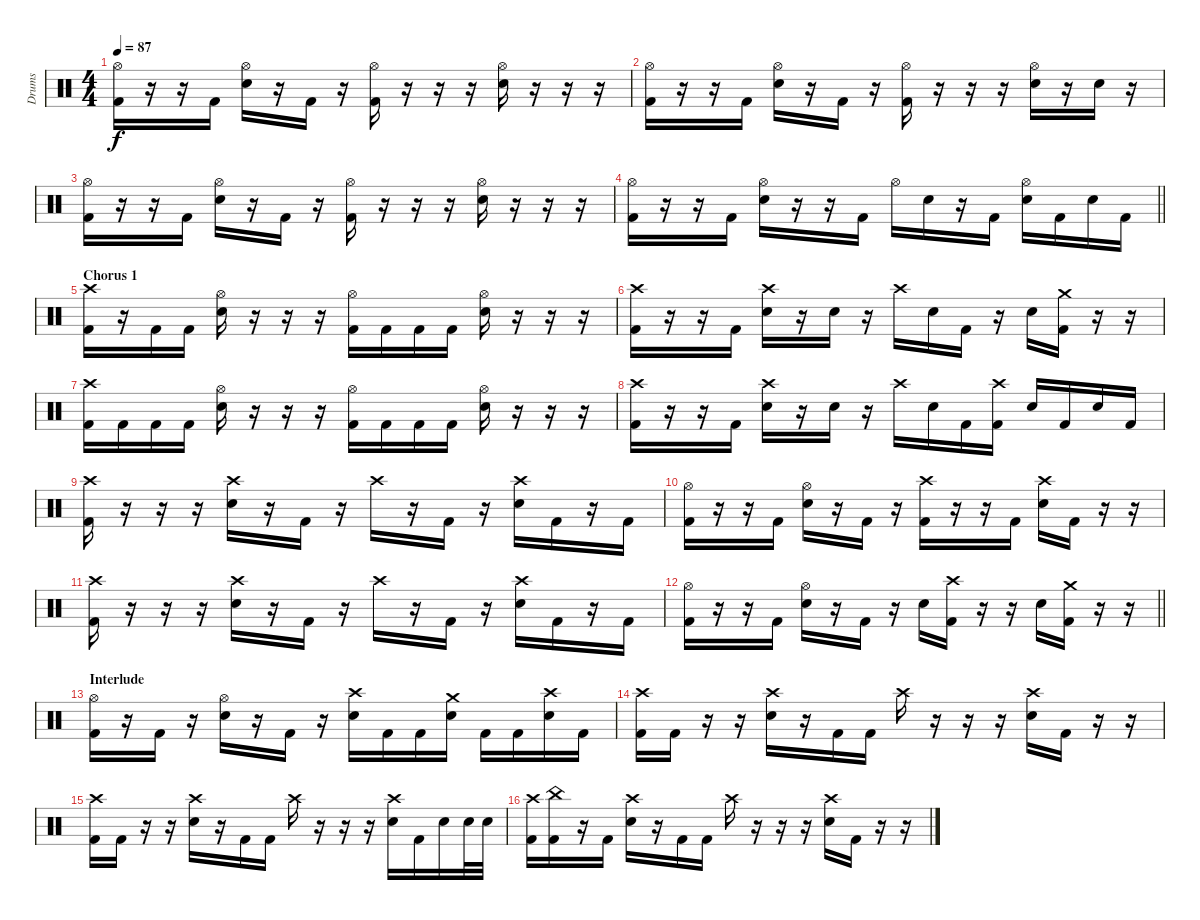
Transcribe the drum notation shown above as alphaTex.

\track ("Drums" "Drums") {instrument percussion}
\staff {score}
\articulation defaults
\ts (4 4)
\tempo 87
\clef neutral
\ks c
("Hi-Hat (open)" "Kick (hit) 2").16{dy f} r.16 r.16 "Kick (hit) 2".16 ("Hi-Hat (open)" "Electric Snare (hit)").16 r.16 "Kick (hit) 2".16 r.16 ("Hi-Hat (open)" "Kick (hit) 2").16 r.16 r.16 r.16 ("Hi-Hat (open)" "Electric Snare (hit)").16 r.16 r.16 r.16 |
("Hi-Hat (open)" "Kick (hit) 2").16 r.16 r.16 "Kick (hit) 2".16 ("Hi-Hat (open)" "Electric Snare (hit)").16 r.16 "Kick (hit) 2".16 r.16 ("Hi-Hat (open)" "Kick (hit) 2").16 r.16 r.16 r.16 ("Hi-Hat (open)" "Electric Snare (hit)").16 r.16 "Electric Snare (hit)".16 r.16 |
("Hi-Hat (open)" "Kick (hit) 2").16 r.16 r.16 "Kick (hit) 2".16 ("Hi-Hat (open)" "Electric Snare (hit)").16 r.16 "Kick (hit) 2".16 r.16 ("Hi-Hat (open)" "Kick (hit) 2").16 r.16 r.16 r.16 ("Hi-Hat (open)" "Electric Snare (hit)").16 r.16 r.16 r.16 |
\barLineRight lightlight
("Hi-Hat (open)" "Kick (hit) 2").16 r.16 r.16 "Kick (hit) 2".16 ("Hi-Hat (open)" "Electric Snare (hit)").16 r.16 r.16 "Kick (hit) 2".16 "Hi-Hat (open)".16 "Electric Snare (hit)".16 r.16 "Kick (hit) 2".16 ("Hi-Hat (open)" "Electric Snare (hit)").16 "Kick (hit) 2".16 "Electric Snare (hit)".16 "Kick (hit) 2".16 |
\section ("" "Chorus 1")
("Crash high (hit)" "Kick (hit) 2").16 r.16 "Kick (hit) 2".16 "Kick (hit) 2".16 ("Hi-Hat (open)" "Electric Snare (hit)").16 r.16 r.16 r.16 ("Hi-Hat (open)" "Kick (hit) 2").16 "Kick (hit) 2".16 "Kick (hit) 2".16 "Kick (hit) 2".16 ("Hi-Hat (open)" "Electric Snare (hit)").16 r.16 r.16 r.16 |
("Crash high (hit)" "Kick (hit) 2").16 r.16 r.16 "Kick (hit) 2".16 ("Crash high (hit)" "Electric Snare (hit)").16 r.16 "Electric Snare (hit)".16 r.16 "Crash high (hit)".16 "Electric Snare (hit)".16 "Kick (hit) 2".16 r.16 "Electric Snare (hit)".16 ("Crash medium (hit)" "Kick (hit) 2").16 r.16 r.16 |
("Crash high (hit)" "Kick (hit) 2").16 "Kick (hit) 2".16 "Kick (hit) 2".16 "Kick (hit) 2".16 ("Hi-Hat (open)" "Electric Snare (hit)").16 r.16 r.16 r.16 ("Hi-Hat (open)" "Kick (hit) 2").16 "Kick (hit) 2".16 "Kick (hit) 2".16 "Kick (hit) 2".16 ("Hi-Hat (open)" "Electric Snare (hit)").16 r.16 r.16 r.16 |
("Crash high (hit)" "Kick (hit) 2").16 r.16 r.16 "Kick (hit) 2".16 ("Crash high (hit)" "Electric Snare (hit)").16 r.16 "Electric Snare (hit)".16 r.16 "Crash high (hit)".16 "Electric Snare (hit)".16 "Kick (hit) 2".16 ("Crash high (hit)" "Kick (hit) 2").16 "Electric Snare (hit)".16 "Kick (hit) 2".16 "Electric Snare (hit)".16 "Kick (hit) 2".16 |
("Crash high (hit)" "Kick (hit) 2").16 r.16 r.16 r.16 ("Crash high (hit)" "Electric Snare (hit)").16 r.16 "Kick (hit) 2".16 r.16 "Crash high (hit)".16 r.16 "Kick (hit) 2".16 r.16 ("Crash high (hit)" "Electric Snare (hit)").16 "Kick (hit) 2".16 r.16 "Kick (hit) 2".16 |
("Hi-Hat (open)" "Kick (hit) 2").16 r.16 r.16 "Kick (hit) 2".16 ("Hi-Hat (open)" "Electric Snare (hit)").16 r.16 "Kick (hit) 2".16 r.16 ("Crash high (hit)" "Kick (hit) 2").16 r.16 r.16 "Kick (hit) 2".16 ("Crash high (hit)" "Electric Snare (hit)").16 "Kick (hit) 2".16 r.16 r.16 |
("Crash high (hit)" "Kick (hit) 2").16 r.16 r.16 r.16 ("Crash high (hit)" "Electric Snare (hit)").16 r.16 "Kick (hit) 2".16 r.16 "Crash high (hit)".16 r.16 "Kick (hit) 2".16 r.16 ("Crash high (hit)" "Electric Snare (hit)").16 "Kick (hit) 2".16 r.16 "Kick (hit) 2".16 |
\barLineRight lightlight
("Hi-Hat (open)" "Kick (hit) 2").16 r.16 r.16 "Kick (hit) 2".16 ("Hi-Hat (open)" "Electric Snare (hit)").16 r.16 "Kick (hit) 2".16 r.16 "Electric Snare (hit)".16 ("Crash high (hit)" "Kick (hit) 2").16 r.16 r.16 "Electric Snare (hit)".16 ("Crash medium (hit)" "Kick (hit) 2").16 r.16 r.16 |
\section ("" "Interlude")
("Hi-Hat (open)" "Kick (hit) 2").16 r.16 "Kick (hit) 2".16 r.16 ("Hi-Hat (open)" "Electric Snare (hit)").16 r.16 "Kick (hit) 2".16 r.16 ("Crash high (hit)" "Electric Snare (hit)").16 "Kick (hit) 2".16 "Kick (hit) 2".16 ("Crash medium (hit)" "Electric Snare (hit)").16 "Kick (hit) 2".16 "Kick (hit) 2".16 ("Crash high (hit)" "Electric Snare (hit)").16 "Kick (hit) 2".16 |
("Crash high (hit)" "Kick (hit) 2").16 "Kick (hit) 2".16 r.16 r.16 ("Crash high (hit)" "Electric Snare (hit)").16 r.16 "Kick (hit) 2".16 "Kick (hit) 2".16 "Crash high (hit)".16 r.16 r.16 r.16 ("Crash high (hit)" "Electric Snare (hit)").16 "Kick (hit) 2".16 r.16 r.16 |
("Crash high (hit)" "Kick (hit) 2").16 "Kick (hit) 2".16 r.16 r.16 ("Crash high (hit)" "Electric Snare (hit)").16 r.16 "Kick (hit) 2".16 "Kick (hit) 2".16 "Crash high (hit)".16 r.16 r.16 r.16 ("Crash high (hit)" "Electric Snare (hit)").16 "Kick (hit) 2".16 "Electric Snare (hit)".16 "Electric Snare (hit)".32 "Electric Snare (hit)".32 |
("Crash high (hit)" "Kick (hit) 2").16 ("China (hit)" "Kick (hit) 2").16 r.16 "Kick (hit) 2".16 ("Crash high (hit)" "Electric Snare (hit)").16 r.16 "Kick (hit) 2".16 "Kick (hit) 2".16 "Crash high (hit)".16 r.16 r.16 r.16 ("Crash high (hit)" "Electric Snare (hit)").16 "Kick (hit) 2".16 r.16 r.16
